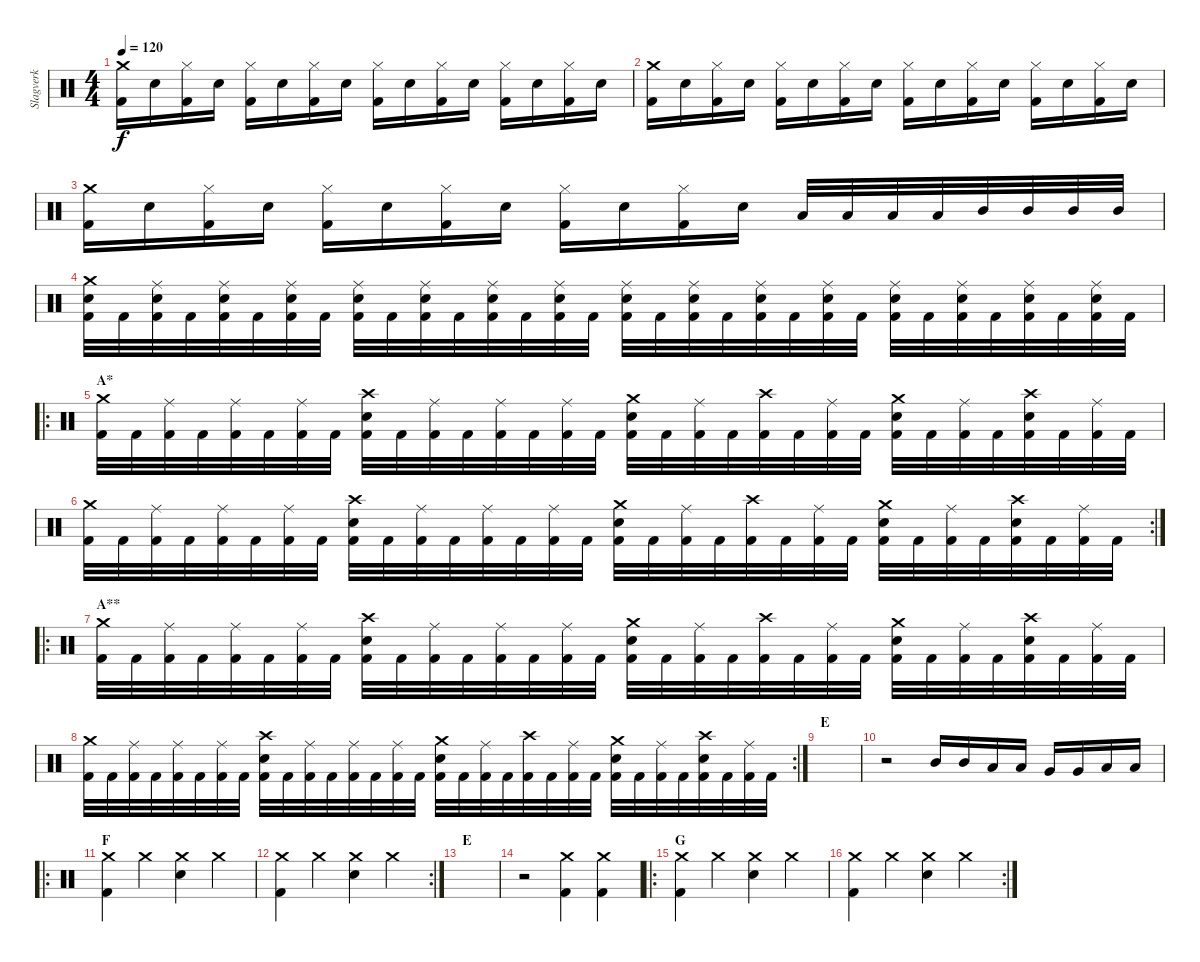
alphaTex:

\track ("Slagverk" "Slagverk") {instrument percussion}
\staff {score}
\articulation defaults
\ts (4 4)
\tempo 120
\clef neutral
\ks c
("Crash medium (hit)" "Kick (hit) 2").16{dy f} "Electric Snare (hit)".16 ("Hi-Hat (closed)" "Kick (hit) 2").16 "Electric Snare (hit)".16 ("Hi-Hat (closed)" "Kick (hit) 2").16 "Electric Snare (hit)".16 ("Hi-Hat (closed)" "Kick (hit) 2").16 "Electric Snare (hit)".16 ("Hi-Hat (closed)" "Kick (hit) 2").16 "Electric Snare (hit)".16 ("Hi-Hat (closed)" "Kick (hit) 2").16 "Electric Snare (hit)".16 ("Hi-Hat (closed)" "Kick (hit) 2").16 "Electric Snare (hit)".16 ("Hi-Hat (closed)" "Kick (hit) 2").16 "Electric Snare (hit)".16 |
("Crash medium (hit)" "Kick (hit) 2").16 "Electric Snare (hit)".16 ("Hi-Hat (closed)" "Kick (hit) 2").16 "Electric Snare (hit)".16 ("Hi-Hat (closed)" "Kick (hit) 2").16 "Electric Snare (hit)".16 ("Hi-Hat (closed)" "Kick (hit) 2").16 "Electric Snare (hit)".16 ("Hi-Hat (closed)" "Kick (hit) 2").16 "Electric Snare (hit)".16 ("Hi-Hat (closed)" "Kick (hit) 2").16 "Electric Snare (hit)".16 ("Hi-Hat (closed)" "Kick (hit) 2").16 "Electric Snare (hit)".16 ("Hi-Hat (closed)" "Kick (hit) 2").16 "Electric Snare (hit)".16 |
("Crash medium (hit)" "Kick (hit) 2").16 "Electric Snare (hit)".16 ("Hi-Hat (closed)" "Kick (hit) 2").16 "Electric Snare (hit)".16 ("Hi-Hat (closed)" "Kick (hit) 2").16 "Electric Snare (hit)".16 ("Hi-Hat (closed)" "Kick (hit) 2").16 "Electric Snare (hit)".16 ("Hi-Hat (closed)" "Kick (hit) 2").16 "Electric Snare (hit)".16 ("Hi-Hat (closed)" "Kick (hit) 2").16 "Electric Snare (hit)".16 "Low Tom (hit)".32 "Low Tom (hit)".32 "Low Tom (hit)".32 "Low Tom (hit)".32 "Mid Tom (hit)".32 "Mid Tom (hit)".32 "Mid Tom (hit)".32 "Mid Tom (hit)".32 |
("Crash medium (hit)" "Electric Snare (hit)" "Kick (hit) 2").32 "Kick (hit) 2".32 ("Ride (middle)" "Electric Snare (hit)" "Kick (hit) 2").32 "Kick (hit) 2".32 ("Ride (middle)" "Electric Snare (hit)" "Kick (hit) 2").32 "Kick (hit) 2".32 ("Ride (middle)" "Electric Snare (hit)" "Kick (hit) 2").32 "Kick (hit) 2".32 ("Ride (middle)" "Electric Snare (hit)" "Kick (hit) 2").32 "Kick (hit) 2".32 ("Ride (middle)" "Electric Snare (hit)" "Kick (hit) 2").32 "Kick (hit) 2".32 ("Ride (middle)" "Electric Snare (hit)" "Kick (hit) 2").32 "Kick (hit) 2".32 ("Ride (middle)" "Electric Snare (hit)" "Kick (hit) 2").32 "Kick (hit) 2".32 ("Ride (middle)" "Electric Snare (hit)" "Kick (hit) 2").32 "Kick (hit) 2".32 ("Ride (middle)" "Electric Snare (hit)" "Kick (hit) 2").32 "Kick (hit) 2".32 ("Ride (middle)" "Electric Snare (hit)" "Kick (hit) 2").32 "Kick (hit) 2".32 ("Ride (middle)" "Electric Snare (hit)" "Kick (hit) 2").32 "Kick (hit) 2".32 ("Ride (middle)" "Electric Snare (hit)" "Kick (hit) 2").32 "Kick (hit) 2".32 ("Ride (middle)" "Electric Snare (hit)" "Kick (hit) 2").32 "Kick (hit) 2".32 ("Ride (middle)" "Electric Snare (hit)" "Kick (hit) 2").32 "Kick (hit) 2".32 ("Ride (middle)" "Electric Snare (hit)" "Kick (hit) 2").32 "Kick (hit) 2".32 |
\ro
\section ("" "A*")
("Crash medium (hit)" "Kick (hit) 2").32 "Kick (hit) 2".32 ("Ride (middle)" "Kick (hit) 2").32 "Kick (hit) 2".32 ("Ride (middle)" "Kick (hit) 2").32 "Kick (hit) 2".32 ("Ride (middle)" "Kick (hit) 2").32 "Kick (hit) 2".32 ("Crash high (hit)" "Electric Snare (hit)" "Kick (hit) 2").32 "Kick (hit) 2".32 ("Ride (middle)" "Kick (hit) 2").32 "Kick (hit) 2".32 ("Ride (middle)" "Kick (hit) 2").32 "Kick (hit) 2".32 ("Ride (middle)" "Kick (hit) 2").32 "Kick (hit) 2".32 ("Crash medium (hit)" "Electric Snare (hit)" "Kick (hit) 2").32 "Kick (hit) 2".32 ("Ride (middle)" "Kick (hit) 2").32 "Kick (hit) 2".32 ("Crash high (hit)" "Kick (hit) 2").32 "Kick (hit) 2".32 ("Ride (middle)" "Kick (hit) 2").32 "Kick (hit) 2".32 ("Crash medium (hit)" "Electric Snare (hit)" "Kick (hit) 2").32 "Kick (hit) 2".32 ("Ride (middle)" "Kick (hit) 2").32 "Kick (hit) 2".32 ("Crash high (hit)" "Electric Snare (hit)" "Kick (hit) 2").32 "Kick (hit) 2".32 ("Ride (middle)" "Kick (hit) 2").32 "Kick (hit) 2".32 |
\rc 2
("Crash medium (hit)" "Kick (hit) 2").32 "Kick (hit) 2".32 ("Ride (middle)" "Kick (hit) 2").32 "Kick (hit) 2".32 ("Ride (middle)" "Kick (hit) 2").32 "Kick (hit) 2".32 ("Ride (middle)" "Kick (hit) 2").32 "Kick (hit) 2".32 ("Crash high (hit)" "Electric Snare (hit)" "Kick (hit) 2").32 "Kick (hit) 2".32 ("Ride (middle)" "Kick (hit) 2").32 "Kick (hit) 2".32 ("Ride (middle)" "Kick (hit) 2").32 "Kick (hit) 2".32 ("Ride (middle)" "Kick (hit) 2").32 "Kick (hit) 2".32 ("Crash medium (hit)" "Electric Snare (hit)" "Kick (hit) 2").32 "Kick (hit) 2".32 ("Ride (middle)" "Kick (hit) 2").32 "Kick (hit) 2".32 ("Crash high (hit)" "Kick (hit) 2").32 "Kick (hit) 2".32 ("Ride (middle)" "Kick (hit) 2").32 "Kick (hit) 2".32 ("Crash medium (hit)" "Electric Snare (hit)" "Kick (hit) 2").32 "Kick (hit) 2".32 ("Ride (middle)" "Kick (hit) 2").32 "Kick (hit) 2".32 ("Crash high (hit)" "Electric Snare (hit)" "Kick (hit) 2").32 "Kick (hit) 2".32 ("Ride (middle)" "Kick (hit) 2").32 "Kick (hit) 2".32 |
\ro
\section ("" "A**")
("Crash medium (hit)" "Kick (hit) 2").32 "Kick (hit) 2".32 ("Ride (middle)" "Kick (hit) 2").32 "Kick (hit) 2".32 ("Ride (middle)" "Kick (hit) 2").32 "Kick (hit) 2".32 ("Ride (middle)" "Kick (hit) 2").32 "Kick (hit) 2".32 ("Crash high (hit)" "Electric Snare (hit)" "Kick (hit) 2").32 "Kick (hit) 2".32 ("Ride (middle)" "Kick (hit) 2").32 "Kick (hit) 2".32 ("Ride (middle)" "Kick (hit) 2").32 "Kick (hit) 2".32 ("Ride (middle)" "Kick (hit) 2").32 "Kick (hit) 2".32 ("Crash medium (hit)" "Electric Snare (hit)" "Kick (hit) 2").32 "Kick (hit) 2".32 ("Ride (middle)" "Kick (hit) 2").32 "Kick (hit) 2".32 ("Crash high (hit)" "Kick (hit) 2").32 "Kick (hit) 2".32 ("Ride (middle)" "Kick (hit) 2").32 "Kick (hit) 2".32 ("Crash medium (hit)" "Electric Snare (hit)" "Kick (hit) 2").32 "Kick (hit) 2".32 ("Ride (middle)" "Kick (hit) 2").32 "Kick (hit) 2".32 ("Crash high (hit)" "Electric Snare (hit)" "Kick (hit) 2").32 "Kick (hit) 2".32 ("Ride (middle)" "Kick (hit) 2").32 "Kick (hit) 2".32 |
\rc 2
("Crash medium (hit)" "Kick (hit) 2").32 "Kick (hit) 2".32 ("Ride (middle)" "Kick (hit) 2").32 "Kick (hit) 2".32 ("Ride (middle)" "Kick (hit) 2").32 "Kick (hit) 2".32 ("Ride (middle)" "Kick (hit) 2").32 "Kick (hit) 2".32 ("Crash high (hit)" "Electric Snare (hit)" "Kick (hit) 2").32 "Kick (hit) 2".32 ("Ride (middle)" "Kick (hit) 2").32 "Kick (hit) 2".32 ("Ride (middle)" "Kick (hit) 2").32 "Kick (hit) 2".32 ("Ride (middle)" "Kick (hit) 2").32 "Kick (hit) 2".32 ("Crash medium (hit)" "Electric Snare (hit)" "Kick (hit) 2").32 "Kick (hit) 2".32 ("Ride (middle)" "Kick (hit) 2").32 "Kick (hit) 2".32 ("Crash high (hit)" "Kick (hit) 2").32 "Kick (hit) 2".32 ("Ride (middle)" "Kick (hit) 2").32 "Kick (hit) 2".32 ("Crash medium (hit)" "Electric Snare (hit)" "Kick (hit) 2").32 "Kick (hit) 2".32 ("Ride (middle)" "Kick (hit) 2").32 "Kick (hit) 2".32 ("Crash high (hit)" "Electric Snare (hit)" "Kick (hit) 2").32 "Kick (hit) 2".32 ("Ride (middle)" "Kick (hit) 2").32 "Kick (hit) 2".32 |
\section ("" "E")
|
r.2 "Mid Tom (hit)".16 "Mid Tom (hit)".16 "Low Tom (hit)".16 "Low Tom (hit)".16 "Very Low Tom (hit)".16 "Very Low Tom (hit)".16 "Low Tom (hit)".16 "Low Tom (hit)".16 |
\ro
\section ("" "F")
("Crash medium (hit)" "Kick (hit) 2").4 "Crash medium (hit)".4 ("Crash medium (hit)" "Electric Snare (hit)").4 "Crash medium (hit)".4 |
\rc 2
("Crash medium (hit)" "Kick (hit) 2").4 "Crash medium (hit)".4 ("Crash medium (hit)" "Electric Snare (hit)").4 "Crash medium (hit)".4 |
\section ("" "E")
|
r.2 ("Crash medium (hit)" "Kick (hit) 2").4 ("Crash medium (hit)" "Kick (hit) 2").4 |
\ro
\section ("" "G")
("Crash medium (hit)" "Kick (hit) 2").4 "Crash medium (hit)".4 ("Crash medium (hit)" "Electric Snare (hit)").4 "Crash medium (hit)".4 |
\rc 2
("Crash medium (hit)" "Kick (hit) 2").4 "Crash medium (hit)".4 ("Crash medium (hit)" "Electric Snare (hit)").4 "Crash medium (hit)".4
